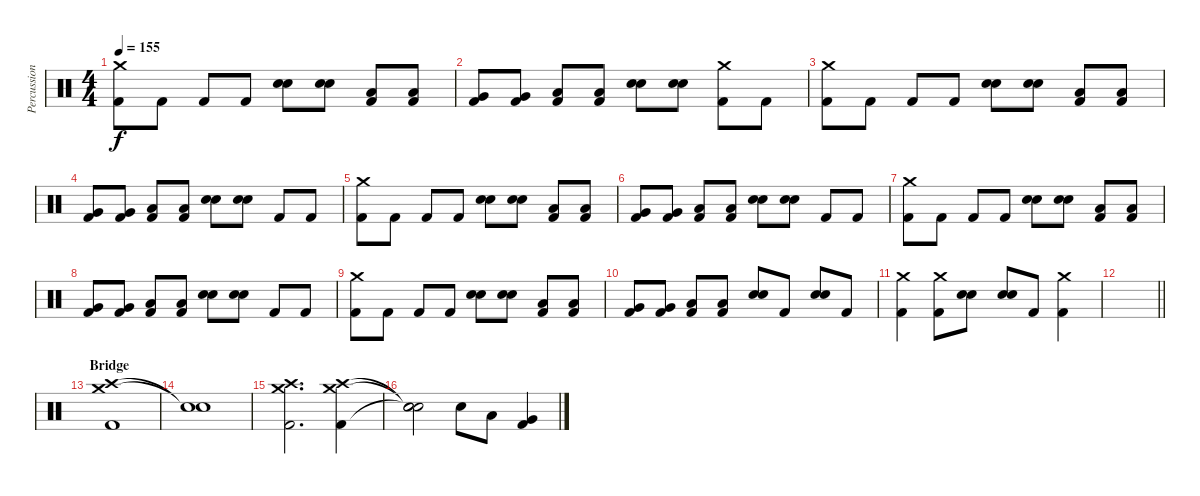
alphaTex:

\track ("Percussion" "Percussion") {instrument percussion}
\staff {score}
\articulation defaults
\ts (4 4)
\tempo 155
\clef neutral
\ks c
("Crash medium (hit)" "Kick (hit) 2").8{dy f} "Kick (hit) 2".8 "Kick (hit) 2".8 "Kick (hit) 2".8 ("Snare (hit) 2" "Electric Snare (hit)").8 ("Snare (hit) 2" "Electric Snare (hit)").8 ("Low Tom (hit)" "Kick (hit) 2").8 ("Low Tom (hit)" "Kick (hit) 2").8 |
("Very Low Tom (hit)" "Kick (hit) 2").8 ("Very Low Tom (hit)" "Kick (hit) 2").8 ("Low Floor Tom (hit)" "Kick (hit) 2").8 ("Low Floor Tom (hit)" "Kick (hit) 2").8 ("Snare (hit) 2" "Electric Snare (hit)").8 ("Snare (hit) 2" "Electric Snare (hit)").8 ("Crash medium (hit)" "Kick (hit) 2").8 "Kick (hit) 2".8 |
("Crash medium (hit)" "Kick (hit) 2").8 "Kick (hit) 2".8 "Kick (hit) 2".8 "Kick (hit) 2".8 ("Snare (hit) 2" "Electric Snare (hit)").8 ("Snare (hit) 2" "Electric Snare (hit)").8 ("Low Tom (hit)" "Kick (hit) 2").8 ("Low Tom (hit)" "Kick (hit) 2").8 |
("Very Low Tom (hit)" "Kick (hit) 2").8 ("Very Low Tom (hit)" "Kick (hit) 2").8 ("Low Floor Tom (hit)" "Kick (hit) 2").8 ("Low Floor Tom (hit)" "Kick (hit) 2").8 ("Snare (hit) 2" "Electric Snare (hit)").8 ("Snare (hit) 2" "Electric Snare (hit)").8 "Kick (hit) 2".8 "Kick (hit) 2".8 |
("Crash medium (hit)" "Kick (hit) 2").8 "Kick (hit) 2".8 "Kick (hit) 2".8 "Kick (hit) 2".8 ("Snare (hit) 2" "Electric Snare (hit)").8 ("Snare (hit) 2" "Electric Snare (hit)").8 ("Low Tom (hit)" "Kick (hit) 2").8 ("Low Tom (hit)" "Kick (hit) 2").8 |
("Very Low Tom (hit)" "Kick (hit) 2").8 ("Very Low Tom (hit)" "Kick (hit) 2").8 ("Low Floor Tom (hit)" "Kick (hit) 2").8 ("Low Floor Tom (hit)" "Kick (hit) 2").8 ("Snare (hit) 2" "Electric Snare (hit)").8 ("Snare (hit) 2" "Electric Snare (hit)").8 "Kick (hit) 2".8 "Kick (hit) 2".8 |
("Crash medium (hit)" "Kick (hit) 2").8 "Kick (hit) 2".8 "Kick (hit) 2".8 "Kick (hit) 2".8 ("Snare (hit) 2" "Electric Snare (hit)").8 ("Snare (hit) 2" "Electric Snare (hit)").8 ("Low Tom (hit)" "Kick (hit) 2").8 ("Low Tom (hit)" "Kick (hit) 2").8 |
("Very Low Tom (hit)" "Kick (hit) 2").8 ("Very Low Tom (hit)" "Kick (hit) 2").8 ("Low Floor Tom (hit)" "Kick (hit) 2").8 ("Low Floor Tom (hit)" "Kick (hit) 2").8 ("Snare (hit) 2" "Electric Snare (hit)").8 ("Snare (hit) 2" "Electric Snare (hit)").8 "Kick (hit) 2".8 "Kick (hit) 2".8 |
("Crash medium (hit)" "Kick (hit) 2").8 "Kick (hit) 2".8 "Kick (hit) 2".8 "Kick (hit) 2".8 ("Snare (hit) 2" "Electric Snare (hit)").8 ("Snare (hit) 2" "Electric Snare (hit)").8 ("Low Tom (hit)" "Kick (hit) 2").8 ("Low Tom (hit)" "Kick (hit) 2").8 |
("Very Low Tom (hit)" "Kick (hit) 2").8 ("Very Low Tom (hit)" "Kick (hit) 2").8 ("Low Floor Tom (hit)" "Kick (hit) 2").8 ("Low Floor Tom (hit)" "Kick (hit) 2").8 ("Snare (hit) 2" "Electric Snare (hit)").8 "Kick (hit) 2".8 ("Snare (hit) 2" "Electric Snare (hit)").8 "Kick (hit) 2".8 |
("Crash medium (hit)" "Kick (hit) 2").4 ("Crash medium (hit)" "Kick (hit) 2").8 ("Snare (hit) 2" "Electric Snare (hit)").8 ("Snare (hit) 2" "Electric Snare (hit)").8 "Kick (hit) 2".8 ("Crash medium (hit)" "Kick (hit) 2").4 |
\barLineRight lightlight
|
\section ("" "Bridge")
("Crash medium (hit)" "Crash high (hit)" "Kick (hit) 2").1 |
("Snare (hit)"{t} "Snare (hit)"{t}).1 |
("Crash medium (hit)" "Crash high (hit)" "Kick (hit) 2").2{d} ("Crash medium (hit)" "Crash high (hit)" "Kick (hit) 2").4 |
("Snare (hit)"{t} "Snare (hit)"{t} "Snare (hit)"{t}).2 "Electric Snare (hit)".8 "Low Tom (hit)".8 ("Very Low Tom (hit)" "Kick (hit) 2").4
